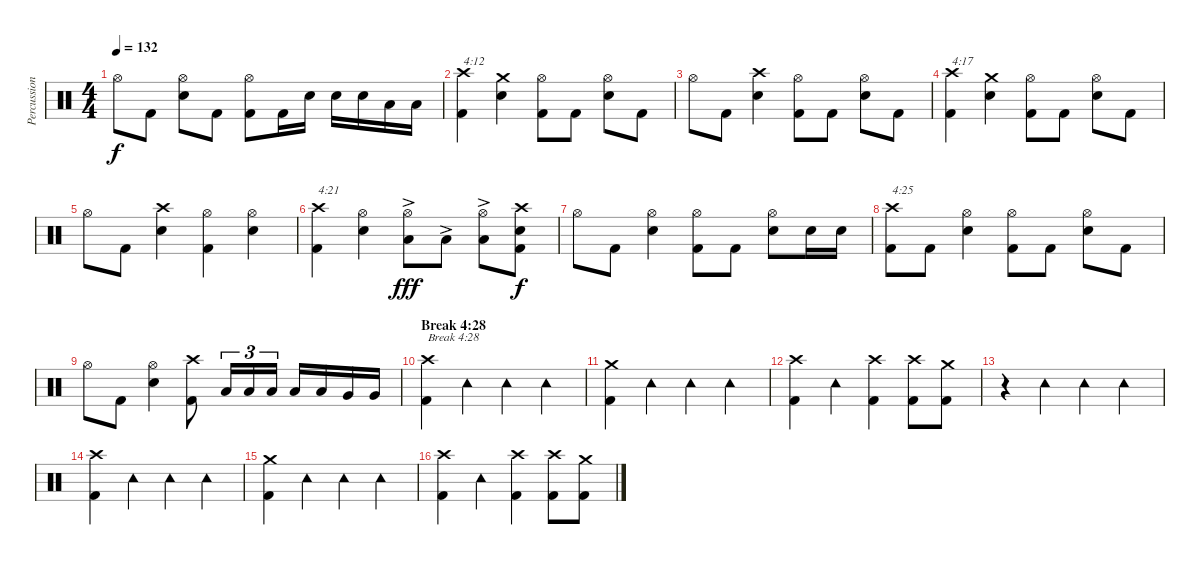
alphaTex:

\track ("Percussion" "Percussion") {instrument percussion}
\staff {score}
\articulation defaults
\ts (4 4)
\tempo 132
\clef neutral
\ks c "Hi-Hat (open)".8{dy f} "Kick (hit) 2".8
("Electric Snare (hit)" "Hi-Hat (open)").8 "Kick (hit) 2".8 ("Kick (hit) 2" "Hi-Hat (open)").8 "Kick (hit) 2".16 "Electric Snare (hit)".16 "Electric Snare (hit)".16 "Electric Snare (hit)".16 "Low Tom (hit)".16 "Low Tom (hit)".16 |
("Kick (hit) 2" "Crash high (hit)").4{txt "4:12"} ("Electric Snare (hit)" "Crash medium (hit)").4 ("Kick (hit) 2" "Hi-Hat (open)").8 "Kick (hit) 2".8 ("Electric Snare (hit)" "Hi-Hat (open)").8 "Kick (hit) 2".8 |
"Hi-Hat (open)".8 "Kick (hit) 2".8 ("Electric Snare (hit)" "Crash high (hit)").4 ("Kick (hit) 2" "Hi-Hat (open)").8 "Kick (hit) 2".8 ("Electric Snare (hit)" "Hi-Hat (open)").8 "Kick (hit) 2".8 |
("Kick (hit) 2" "Crash high (hit)").4{txt "4:17"} ("Electric Snare (hit)" "Crash medium (hit)").4 ("Kick (hit) 2" "Hi-Hat (open)").8 "Kick (hit) 2".8 ("Electric Snare (hit)" "Hi-Hat (open)").8 "Kick (hit) 2".8 |
"Hi-Hat (open)".8 "Kick (hit) 2".8 ("Electric Snare (hit)" "Crash high (hit)").4 ("Kick (hit) 2" "Hi-Hat (open)").4 ("Electric Snare (hit)" "Hi-Hat (open)").4 |
("Kick (hit) 2" "Crash high (hit)").4{txt "4:21"} ("Electric Snare (hit)" "Hi-Hat (open)").4 ("Low Tom (hit)"{ac} "Hi-Hat (open)").8{dy fff} "Low Tom (hit)"{ac}.8 ("Low Tom (hit)"{ac} "Hi-Hat (open)").8 ("Kick (hit) 2" "Electric Snare (hit)" "Crash high (hit)").8{dy f} |
"Hi-Hat (open)".8 "Kick (hit) 2".8 ("Electric Snare (hit)" "Hi-Hat (open)").4 ("Kick (hit) 2" "Hi-Hat (open)").8 "Kick (hit) 2".8 ("Electric Snare (hit)" "Hi-Hat (open)").8 "Electric Snare (hit)".16 "Electric Snare (hit)".16 |
("Kick (hit) 2" "Crash high (hit)").8{txt "4:25"} "Kick (hit) 2".8 ("Electric Snare (hit)" "Hi-Hat (open)").4 ("Kick (hit) 2" "Hi-Hat (open)").8 "Kick (hit) 2".8 ("Electric Snare (hit)" "Hi-Hat (open)").8 "Kick (hit) 2".8 |
"Hi-Hat (open)".8 "Kick (hit) 2".8 ("Electric Snare (hit)" "Hi-Hat (open)").4 ("Kick (hit) 2" "Crash high (hit)").8 "Low Tom (hit)".16{tu (3 2)} "Low Tom (hit)".16{tu (3 2)} "Low Tom (hit)".16{tu (3 2)} "Low Tom (hit)".16 "Low Tom (hit)".16 "Very Low Tom (hit)".16 "Very Low Tom (hit)".16 |
\section ("" "Break 4:28")
("Kick (hit) 2" "Crash high (hit)").4{txt "Break 4:28"} "Tambourine (hit)".4 "Tambourine (hit)".4 "Tambourine (hit)".4 |
("Kick (hit) 2" "Crash medium (hit)").4 "Tambourine (hit)".4 "Tambourine (hit)".4 "Tambourine (hit)".4 |
("Kick (hit) 2" "Crash high (hit)").4 "Tambourine (hit)".4 ("Kick (hit) 2" "Crash high (hit)").4 ("Kick (hit) 2" "Crash high (hit)").8 ("Kick (hit) 2" "Crash medium (hit)").8 |
r.4 "Tambourine (hit)".4 "Tambourine (hit)".4 "Tambourine (hit)".4 |
("Kick (hit) 2" "Crash high (hit)").4 "Tambourine (hit)".4 "Tambourine (hit)".4 "Tambourine (hit)".4 |
("Kick (hit) 2" "Crash medium (hit)").4 "Tambourine (hit)".4 "Tambourine (hit)".4 "Tambourine (hit)".4 |
("Kick (hit) 2" "Crash high (hit)").4 "Tambourine (hit)".4 ("Kick (hit) 2" "Crash high (hit)").4 ("Kick (hit) 2" "Crash high (hit)").8 ("Kick (hit) 2" "Crash medium (hit)").8
